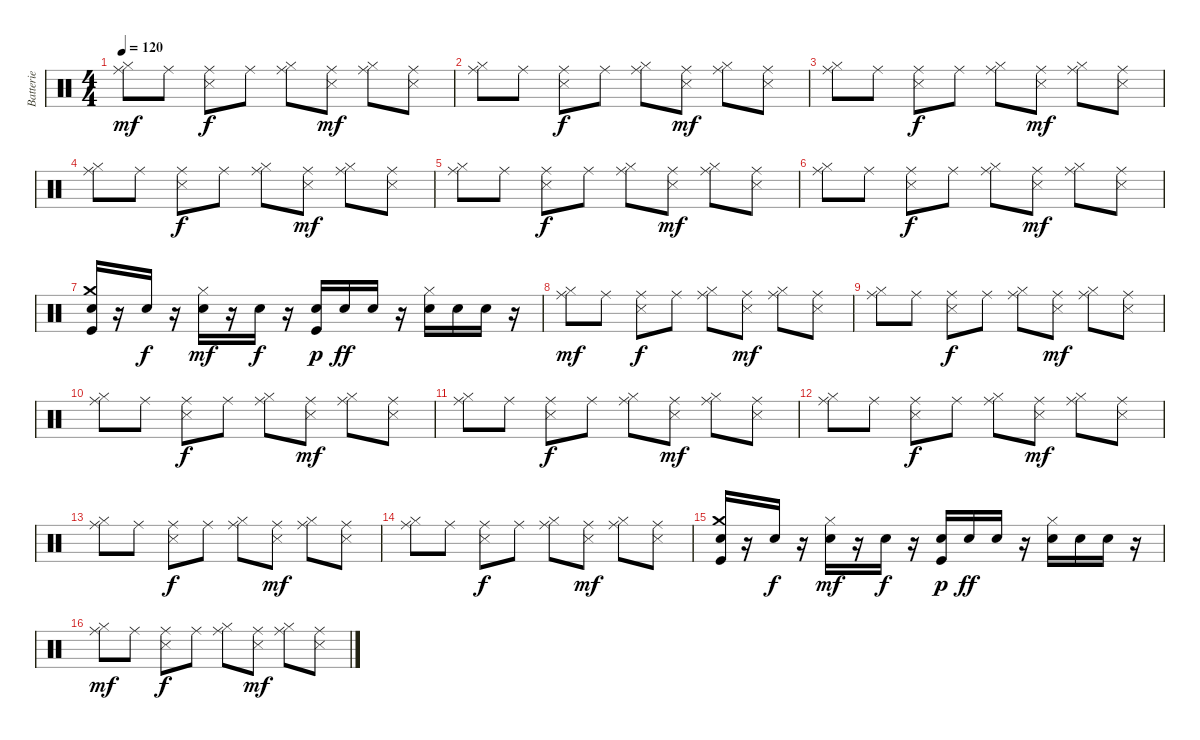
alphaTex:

\track ("Batterie" "Batterie") {instrument percussion}
\staff {score}
\articulation defaults
\ts (4 4)
\tempo 120
\clef neutral
\ks c
("Ride (middle)" "Hi-Hat (closed)").8{dy mf} "Ride (middle)".8 ("Ride (middle)" "Snare (side stick) 3").8{dy f} "Ride (middle)".8 ("Ride (middle)" "Hi-Hat (closed)").8 ("Ride (middle)" "Snare (side stick) 3").8{dy mf} ("Ride (middle)" "Hi-Hat (closed)").8 ("Ride (middle)" "Snare (side stick) 3").8 |
("Ride (middle)" "Hi-Hat (closed)").8 "Ride (middle)".8 ("Ride (middle)" "Snare (side stick) 3").8{dy f} "Ride (middle)".8 ("Ride (middle)" "Hi-Hat (closed)").8 ("Ride (middle)" "Snare (side stick) 3").8{dy mf} ("Ride (middle)" "Hi-Hat (closed)").8 ("Ride (middle)" "Snare (side stick) 3").8 |
("Ride (middle)" "Hi-Hat (closed)").8 "Ride (middle)".8 ("Ride (middle)" "Snare (side stick) 3").8{dy f} "Ride (middle)".8 ("Ride (middle)" "Hi-Hat (closed)").8 ("Ride (middle)" "Snare (side stick) 3").8{dy mf} ("Ride (middle)" "Hi-Hat (closed)").8 ("Ride (middle)" "Snare (side stick) 3").8 |
("Ride (middle)" "Hi-Hat (closed)").8 "Ride (middle)".8 ("Ride (middle)" "Snare (side stick) 3").8{dy f} "Ride (middle)".8 ("Ride (middle)" "Hi-Hat (closed)").8 ("Ride (middle)" "Snare (side stick) 3").8{dy mf} ("Ride (middle)" "Hi-Hat (closed)").8 ("Ride (middle)" "Snare (side stick) 3").8 |
("Ride (middle)" "Hi-Hat (closed)").8 "Ride (middle)".8 ("Ride (middle)" "Snare (side stick) 3").8{dy f} "Ride (middle)".8 ("Ride (middle)" "Hi-Hat (closed)").8 ("Ride (middle)" "Snare (side stick) 3").8{dy mf} ("Ride (middle)" "Hi-Hat (closed)").8 ("Ride (middle)" "Snare (side stick) 3").8 |
("Ride (middle)" "Hi-Hat (closed)").8 "Ride (middle)".8 ("Ride (middle)" "Snare (side stick) 3").8{dy f} "Ride (middle)".8 ("Ride (middle)" "Hi-Hat (closed)").8 ("Ride (middle)" "Snare (side stick) 3").8{dy mf} ("Ride (middle)" "Hi-Hat (closed)").8 ("Ride (middle)" "Snare (side stick) 3").8 |
("Kick (hit)" "Crash medium (hit)" "Snare (hit) 2").16 r.16 "Snare (hit) 2".16{dy f} r.16 ("Hi-Hat (closed)" "Snare (hit) 2").16{dy mf} r.16 "Snare (hit) 2".16{dy f} r.16 ("Kick (hit)" "Snare (hit) 2").16{dy p} "Snare (hit) 2".16{dy ff} "Snare (hit) 2".16 r.16 ("Hi-Hat (closed)" "Snare (hit) 2").16 "Snare (hit) 2".16 "Snare (hit) 2".16 r.16 |
("Ride (middle)" "Hi-Hat (closed)").8{dy mf} "Ride (middle)".8 ("Ride (middle)" "Snare (side stick) 3").8{dy f} "Ride (middle)".8 ("Ride (middle)" "Hi-Hat (closed)").8 ("Ride (middle)" "Snare (side stick) 3").8{dy mf} ("Ride (middle)" "Hi-Hat (closed)").8 ("Ride (middle)" "Snare (side stick) 3").8 |
("Ride (middle)" "Hi-Hat (closed)").8 "Ride (middle)".8 ("Ride (middle)" "Snare (side stick) 3").8{dy f} "Ride (middle)".8 ("Ride (middle)" "Hi-Hat (closed)").8 ("Ride (middle)" "Snare (side stick) 3").8{dy mf} ("Ride (middle)" "Hi-Hat (closed)").8 ("Ride (middle)" "Snare (side stick) 3").8 |
("Ride (middle)" "Hi-Hat (closed)").8 "Ride (middle)".8 ("Ride (middle)" "Snare (side stick) 3").8{dy f} "Ride (middle)".8 ("Ride (middle)" "Hi-Hat (closed)").8 ("Ride (middle)" "Snare (side stick) 3").8{dy mf} ("Ride (middle)" "Hi-Hat (closed)").8 ("Ride (middle)" "Snare (side stick) 3").8 |
("Ride (middle)" "Hi-Hat (closed)").8 "Ride (middle)".8 ("Ride (middle)" "Snare (side stick) 3").8{dy f} "Ride (middle)".8 ("Ride (middle)" "Hi-Hat (closed)").8 ("Ride (middle)" "Snare (side stick) 3").8{dy mf} ("Ride (middle)" "Hi-Hat (closed)").8 ("Ride (middle)" "Snare (side stick) 3").8 |
("Ride (middle)" "Hi-Hat (closed)").8 "Ride (middle)".8 ("Ride (middle)" "Snare (side stick) 3").8{dy f} "Ride (middle)".8 ("Ride (middle)" "Hi-Hat (closed)").8 ("Ride (middle)" "Snare (side stick) 3").8{dy mf} ("Ride (middle)" "Hi-Hat (closed)").8 ("Ride (middle)" "Snare (side stick) 3").8 |
("Ride (middle)" "Hi-Hat (closed)").8 "Ride (middle)".8 ("Ride (middle)" "Snare (side stick) 3").8{dy f} "Ride (middle)".8 ("Ride (middle)" "Hi-Hat (closed)").8 ("Ride (middle)" "Snare (side stick) 3").8{dy mf} ("Ride (middle)" "Hi-Hat (closed)").8 ("Ride (middle)" "Snare (side stick) 3").8 |
("Ride (middle)" "Hi-Hat (closed)").8 "Ride (middle)".8 ("Ride (middle)" "Snare (side stick) 3").8{dy f} "Ride (middle)".8 ("Ride (middle)" "Hi-Hat (closed)").8 ("Ride (middle)" "Snare (side stick) 3").8{dy mf} ("Ride (middle)" "Hi-Hat (closed)").8 ("Ride (middle)" "Snare (side stick) 3").8 |
("Kick (hit)" "Crash medium (hit)" "Snare (hit) 2").16 r.16 "Snare (hit) 2".16{dy f} r.16 ("Hi-Hat (closed)" "Snare (hit) 2").16{dy mf} r.16 "Snare (hit) 2".16{dy f} r.16 ("Kick (hit)" "Snare (hit) 2").16{dy p} "Snare (hit) 2".16{dy ff} "Snare (hit) 2".16 r.16 ("Hi-Hat (closed)" "Snare (hit) 2").16 "Snare (hit) 2".16 "Snare (hit) 2".16 r.16 |
("Ride (middle)" "Hi-Hat (closed)").8{dy mf} "Ride (middle)".8 ("Ride (middle)" "Snare (side stick) 3").8{dy f} "Ride (middle)".8 ("Ride (middle)" "Hi-Hat (closed)").8 ("Ride (middle)" "Snare (side stick) 3").8{dy mf} ("Ride (middle)" "Hi-Hat (closed)").8 ("Ride (middle)" "Snare (side stick) 3").8
